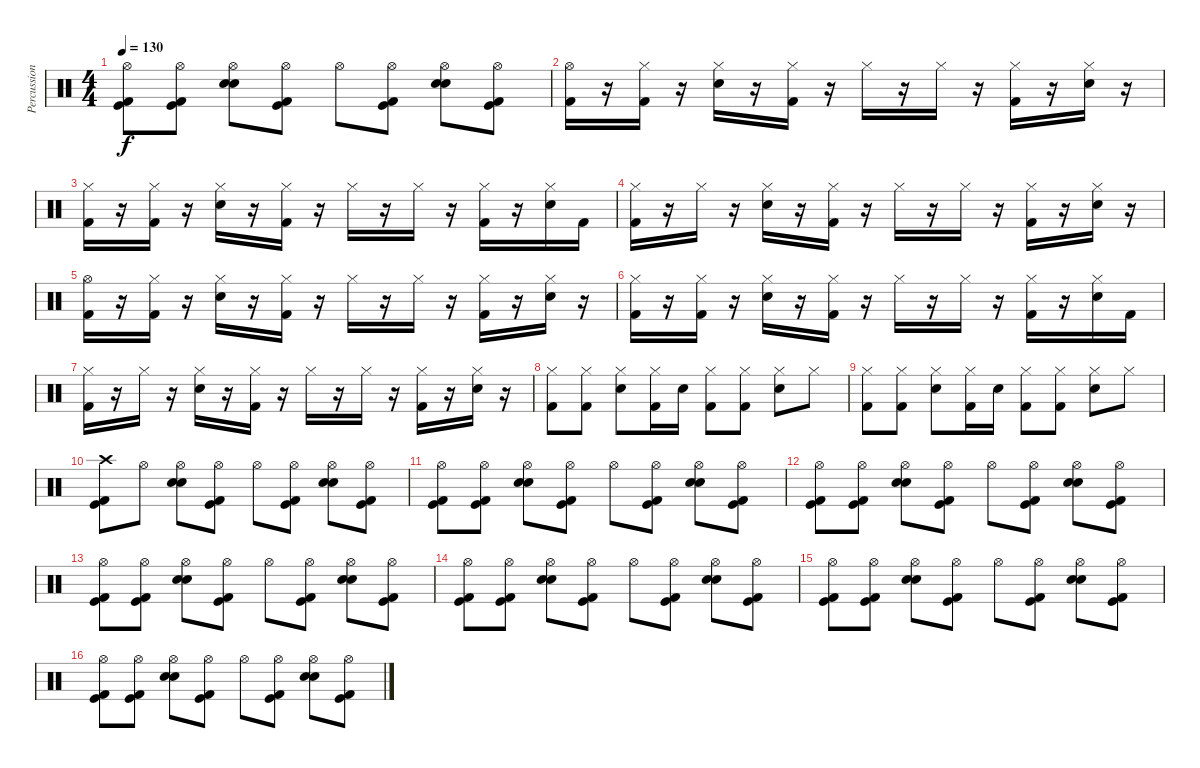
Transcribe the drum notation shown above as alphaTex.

\track ("Percussions" "Percussion") {instrument percussion}
\staff {score}
\articulation defaults
\ts (4 4)
\tempo 130
\clef neutral
\ks c
("Hi-Hat (open)" "Kick (hit)" "Kick (hit) 2").8{dy f} ("Hi-Hat (open)" "Kick (hit)" "Kick (hit) 2").8 ("Hi-Hat (open)" "Snare (hit) 2" "Electric Snare (hit)").8 ("Hi-Hat (open)" "Kick (hit)" "Kick (hit) 2").8 "Hi-Hat (open)".8 ("Hi-Hat (open)" "Kick (hit)" "Kick (hit) 2").8 ("Hi-Hat (open)" "Snare (hit) 2" "Electric Snare (hit)").8 ("Hi-Hat (open)" "Kick (hit)" "Kick (hit) 2").8 |
("Hi-Hat (open)" "Kick (hit) 2").16 r.16 ("Hi-Hat (closed)" "Kick (hit) 2").16 r.16 ("Hi-Hat (closed)" "Electric Snare (hit)").16 r.16 ("Hi-Hat (closed)" "Kick (hit) 2").16 r.16 "Hi-Hat (closed)".16 r.16 "Hi-Hat (closed)".16 r.16 ("Hi-Hat (closed)" "Kick (hit) 2").16 r.16 ("Hi-Hat (closed)" "Electric Snare (hit)").16 r.16 |
("Hi-Hat (closed)" "Kick (hit) 2").16 r.16 ("Hi-Hat (closed)" "Kick (hit) 2").16 r.16 ("Hi-Hat (closed)" "Electric Snare (hit)").16 r.16 ("Hi-Hat (closed)" "Kick (hit) 2").16 r.16 "Hi-Hat (closed)".16 r.16 "Hi-Hat (closed)".16 r.16 ("Hi-Hat (closed)" "Kick (hit) 2").16 r.16 ("Hi-Hat (closed)" "Electric Snare (hit)").16 "Kick (hit) 2".16 |
("Hi-Hat (closed)" "Kick (hit) 2").16 r.16 "Hi-Hat (closed)".16 r.16 ("Hi-Hat (closed)" "Electric Snare (hit)").16 r.16 ("Hi-Hat (closed)" "Kick (hit) 2").16 r.16 "Hi-Hat (closed)".16 r.16 "Hi-Hat (closed)".16 r.16 ("Hi-Hat (closed)" "Kick (hit) 2").16 r.16 ("Hi-Hat (closed)" "Electric Snare (hit)").16 r.16 |
("Hi-Hat (open)" "Kick (hit) 2").16 r.16 ("Hi-Hat (closed)" "Kick (hit) 2").16 r.16 ("Hi-Hat (closed)" "Electric Snare (hit)").16 r.16 ("Hi-Hat (closed)" "Kick (hit) 2").16 r.16 "Hi-Hat (closed)".16 r.16 "Hi-Hat (closed)".16 r.16 ("Hi-Hat (closed)" "Kick (hit) 2").16 r.16 ("Hi-Hat (closed)" "Electric Snare (hit)").16 r.16 |
("Hi-Hat (closed)" "Kick (hit) 2").16 r.16 ("Hi-Hat (closed)" "Kick (hit) 2").16 r.16 ("Hi-Hat (closed)" "Electric Snare (hit)").16 r.16 ("Hi-Hat (closed)" "Kick (hit) 2").16 r.16 "Hi-Hat (closed)".16 r.16 "Hi-Hat (closed)".16 r.16 ("Hi-Hat (closed)" "Kick (hit) 2").16 r.16 ("Hi-Hat (closed)" "Electric Snare (hit)").16 "Kick (hit) 2".16 |
("Hi-Hat (closed)" "Kick (hit) 2").16 r.16 "Hi-Hat (closed)".16 r.16 ("Hi-Hat (closed)" "Electric Snare (hit)").16 r.16 ("Hi-Hat (closed)" "Kick (hit) 2").16 r.16 "Hi-Hat (closed)".16 r.16 "Hi-Hat (closed)".16 r.16 ("Hi-Hat (closed)" "Kick (hit) 2").16 r.16 ("Hi-Hat (closed)" "Electric Snare (hit)").16 r.16 |
("Hi-Hat (closed)" "Kick (hit) 2").8 ("Hi-Hat (closed)" "Kick (hit) 2").8 ("Hi-Hat (closed)" "Snare (hit) 2").8 ("Hi-Hat (closed)" "Kick (hit) 2").16 "Electric Snare (hit)".16 ("Hi-Hat (closed)" "Kick (hit) 2").8 ("Hi-Hat (closed)" "Kick (hit) 2").8 ("Hi-Hat (closed)" "Snare (hit) 2").8 "Hi-Hat (closed)".8 |
("Hi-Hat (closed)" "Kick (hit) 2").8 ("Hi-Hat (closed)" "Kick (hit) 2").8 ("Hi-Hat (closed)" "Snare (hit) 2").8 ("Hi-Hat (closed)" "Kick (hit) 2").16 "Electric Snare (hit)".16 ("Hi-Hat (closed)" "Kick (hit) 2").8 ("Hi-Hat (closed)" "Kick (hit) 2").8 ("Hi-Hat (closed)" "Snare (hit) 2").8 "Hi-Hat (closed)".8 |
("Crash high (hit)" "Kick (hit)" "Kick (hit) 2").8 "Hi-Hat (open)".8 ("Hi-Hat (open)" "Snare (hit) 2" "Electric Snare (hit)").8 ("Hi-Hat (open)" "Kick (hit)" "Kick (hit) 2").8 "Hi-Hat (open)".8 ("Hi-Hat (open)" "Kick (hit)" "Kick (hit) 2").8 ("Hi-Hat (open)" "Snare (hit) 2" "Electric Snare (hit)").8 ("Hi-Hat (open)" "Kick (hit)" "Kick (hit) 2").8 |
("Hi-Hat (open)" "Kick (hit)" "Kick (hit) 2").8 ("Hi-Hat (open)" "Kick (hit)" "Kick (hit) 2").8 ("Hi-Hat (open)" "Snare (hit) 2" "Electric Snare (hit)").8 ("Hi-Hat (open)" "Kick (hit)" "Kick (hit) 2").8 "Hi-Hat (open)".8 ("Hi-Hat (open)" "Kick (hit)" "Kick (hit) 2").8 ("Hi-Hat (open)" "Snare (hit) 2" "Electric Snare (hit)").8 ("Hi-Hat (open)" "Kick (hit)" "Kick (hit) 2").8 |
("Hi-Hat (open)" "Kick (hit)" "Kick (hit) 2").8 ("Hi-Hat (open)" "Kick (hit)" "Kick (hit) 2").8 ("Hi-Hat (open)" "Snare (hit) 2" "Electric Snare (hit)").8 ("Hi-Hat (open)" "Kick (hit)" "Kick (hit) 2").8 "Hi-Hat (open)".8 ("Hi-Hat (open)" "Kick (hit)" "Kick (hit) 2").8 ("Hi-Hat (open)" "Snare (hit) 2" "Electric Snare (hit)").8 ("Hi-Hat (open)" "Kick (hit)" "Kick (hit) 2").8 |
("Hi-Hat (open)" "Kick (hit)" "Kick (hit) 2").8 ("Hi-Hat (open)" "Kick (hit)" "Kick (hit) 2").8 ("Hi-Hat (open)" "Snare (hit) 2" "Electric Snare (hit)").8 ("Hi-Hat (open)" "Kick (hit)" "Kick (hit) 2").8 "Hi-Hat (open)".8 ("Hi-Hat (open)" "Kick (hit)" "Kick (hit) 2").8 ("Hi-Hat (open)" "Snare (hit) 2" "Electric Snare (hit)").8 ("Hi-Hat (open)" "Kick (hit)" "Kick (hit) 2").8 |
("Hi-Hat (open)" "Kick (hit)" "Kick (hit) 2").8 ("Hi-Hat (open)" "Kick (hit)" "Kick (hit) 2").8 ("Hi-Hat (open)" "Snare (hit) 2" "Electric Snare (hit)").8 ("Hi-Hat (open)" "Kick (hit)" "Kick (hit) 2").8 "Hi-Hat (open)".8 ("Hi-Hat (open)" "Kick (hit)" "Kick (hit) 2").8 ("Hi-Hat (open)" "Snare (hit) 2" "Electric Snare (hit)").8 ("Hi-Hat (open)" "Kick (hit)" "Kick (hit) 2").8 |
("Hi-Hat (open)" "Kick (hit)" "Kick (hit) 2").8 ("Hi-Hat (open)" "Kick (hit)" "Kick (hit) 2").8 ("Hi-Hat (open)" "Snare (hit) 2" "Electric Snare (hit)").8 ("Hi-Hat (open)" "Kick (hit)" "Kick (hit) 2").8 "Hi-Hat (open)".8 ("Hi-Hat (open)" "Kick (hit)" "Kick (hit) 2").8 ("Hi-Hat (open)" "Snare (hit) 2" "Electric Snare (hit)").8 ("Hi-Hat (open)" "Kick (hit)" "Kick (hit) 2").8 |
("Hi-Hat (open)" "Kick (hit)" "Kick (hit) 2").8 ("Hi-Hat (open)" "Kick (hit)" "Kick (hit) 2").8 ("Hi-Hat (open)" "Snare (hit) 2" "Electric Snare (hit)").8 ("Hi-Hat (open)" "Kick (hit)" "Kick (hit) 2").8 "Hi-Hat (open)".8 ("Hi-Hat (open)" "Kick (hit)" "Kick (hit) 2").8 ("Hi-Hat (open)" "Snare (hit) 2" "Electric Snare (hit)").8 ("Hi-Hat (open)" "Kick (hit)" "Kick (hit) 2").8
